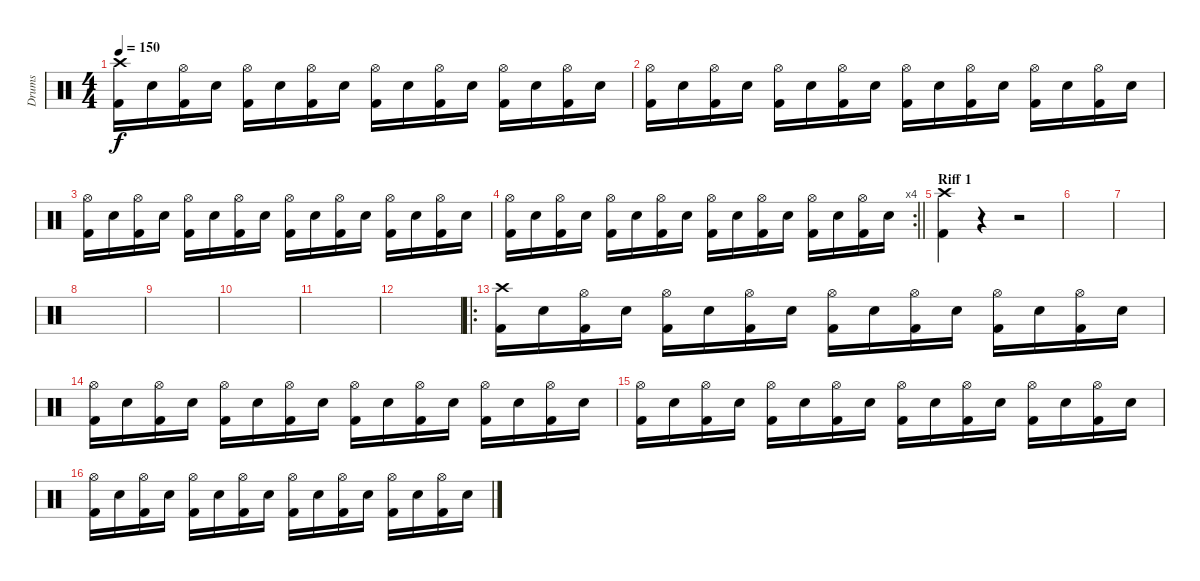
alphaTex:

\track ("Drums" "Drums") {instrument percussion}
\staff {score}
\articulation defaults
\ts (4 4)
\tempo 150
\clef neutral
\ks c
("Crash high (hit)" "Kick (hit) 2").16{dy f} "Electric Snare (hit)".16 ("Hi-Hat (open)" "Kick (hit) 2").16 "Electric Snare (hit)".16 ("Hi-Hat (open)" "Kick (hit) 2").16 "Electric Snare (hit)".16 ("Hi-Hat (open)" "Kick (hit) 2").16 "Electric Snare (hit)".16 ("Hi-Hat (open)" "Kick (hit) 2").16 "Electric Snare (hit)".16 ("Hi-Hat (open)" "Kick (hit) 2").16 "Electric Snare (hit)".16 ("Hi-Hat (open)" "Kick (hit) 2").16 "Electric Snare (hit)".16 ("Hi-Hat (open)" "Kick (hit) 2").16 "Electric Snare (hit)".16 |
("Hi-Hat (open)" "Kick (hit) 2").16 "Electric Snare (hit)".16 ("Hi-Hat (open)" "Kick (hit) 2").16 "Electric Snare (hit)".16 ("Hi-Hat (open)" "Kick (hit) 2").16 "Electric Snare (hit)".16 ("Hi-Hat (open)" "Kick (hit) 2").16 "Electric Snare (hit)".16 ("Hi-Hat (open)" "Kick (hit) 2").16 "Electric Snare (hit)".16 ("Hi-Hat (open)" "Kick (hit) 2").16 "Electric Snare (hit)".16 ("Hi-Hat (open)" "Kick (hit) 2").16 "Electric Snare (hit)".16 ("Hi-Hat (open)" "Kick (hit) 2").16 "Electric Snare (hit)".16 |
("Hi-Hat (open)" "Kick (hit) 2").16 "Electric Snare (hit)".16 ("Hi-Hat (open)" "Kick (hit) 2").16 "Electric Snare (hit)".16 ("Hi-Hat (open)" "Kick (hit) 2").16 "Electric Snare (hit)".16 ("Hi-Hat (open)" "Kick (hit) 2").16 "Electric Snare (hit)".16 ("Hi-Hat (open)" "Kick (hit) 2").16 "Electric Snare (hit)".16 ("Hi-Hat (open)" "Kick (hit) 2").16 "Electric Snare (hit)".16 ("Hi-Hat (open)" "Kick (hit) 2").16 "Electric Snare (hit)".16 ("Hi-Hat (open)" "Kick (hit) 2").16 "Electric Snare (hit)".16 |
\rc 4
\barLineRight lightlight
("Hi-Hat (open)" "Kick (hit) 2").16 "Electric Snare (hit)".16 ("Hi-Hat (open)" "Kick (hit) 2").16 "Electric Snare (hit)".16 ("Hi-Hat (open)" "Kick (hit) 2").16 "Electric Snare (hit)".16 ("Hi-Hat (open)" "Kick (hit) 2").16 "Electric Snare (hit)".16 ("Hi-Hat (open)" "Kick (hit) 2").16 "Electric Snare (hit)".16 ("Hi-Hat (open)" "Kick (hit) 2").16 "Electric Snare (hit)".16 ("Hi-Hat (open)" "Kick (hit) 2").16 "Electric Snare (hit)".16 ("Hi-Hat (open)" "Kick (hit) 2").16 "Electric Snare (hit)".16 |
\section ("" "Riff 1")
("Crash high (hit)" "Kick (hit) 2").4 r.4 r.2 |
|
|
|
|
|
|
|
\ro
("Crash high (hit)" "Kick (hit) 2").16 "Electric Snare (hit)".16 ("Hi-Hat (open)" "Kick (hit) 2").16 "Electric Snare (hit)".16 ("Hi-Hat (open)" "Kick (hit) 2").16 "Electric Snare (hit)".16 ("Hi-Hat (open)" "Kick (hit) 2").16 "Electric Snare (hit)".16 ("Hi-Hat (open)" "Kick (hit) 2").16 "Electric Snare (hit)".16 ("Hi-Hat (open)" "Kick (hit) 2").16 "Electric Snare (hit)".16 ("Hi-Hat (open)" "Kick (hit) 2").16 "Electric Snare (hit)".16 ("Hi-Hat (open)" "Kick (hit) 2").16 "Electric Snare (hit)".16 |
("Hi-Hat (open)" "Kick (hit) 2").16 "Electric Snare (hit)".16 ("Hi-Hat (open)" "Kick (hit) 2").16 "Electric Snare (hit)".16 ("Hi-Hat (open)" "Kick (hit) 2").16 "Electric Snare (hit)".16 ("Hi-Hat (open)" "Kick (hit) 2").16 "Electric Snare (hit)".16 ("Hi-Hat (open)" "Kick (hit) 2").16 "Electric Snare (hit)".16 ("Hi-Hat (open)" "Kick (hit) 2").16 "Electric Snare (hit)".16 ("Hi-Hat (open)" "Kick (hit) 2").16 "Electric Snare (hit)".16 ("Hi-Hat (open)" "Kick (hit) 2").16 "Electric Snare (hit)".16 |
("Hi-Hat (open)" "Kick (hit) 2").16 "Electric Snare (hit)".16 ("Hi-Hat (open)" "Kick (hit) 2").16 "Electric Snare (hit)".16 ("Hi-Hat (open)" "Kick (hit) 2").16 "Electric Snare (hit)".16 ("Hi-Hat (open)" "Kick (hit) 2").16 "Electric Snare (hit)".16 ("Hi-Hat (open)" "Kick (hit) 2").16 "Electric Snare (hit)".16 ("Hi-Hat (open)" "Kick (hit) 2").16 "Electric Snare (hit)".16 ("Hi-Hat (open)" "Kick (hit) 2").16 "Electric Snare (hit)".16 ("Hi-Hat (open)" "Kick (hit) 2").16 "Electric Snare (hit)".16 |
("Hi-Hat (open)" "Kick (hit) 2").16 "Electric Snare (hit)".16 ("Hi-Hat (open)" "Kick (hit) 2").16 "Electric Snare (hit)".16 ("Hi-Hat (open)" "Kick (hit) 2").16 "Electric Snare (hit)".16 ("Hi-Hat (open)" "Kick (hit) 2").16 "Electric Snare (hit)".16 ("Hi-Hat (open)" "Kick (hit) 2").16 "Electric Snare (hit)".16 ("Hi-Hat (open)" "Kick (hit) 2").16 "Electric Snare (hit)".16 ("Hi-Hat (open)" "Kick (hit) 2").16 "Electric Snare (hit)".16 ("Hi-Hat (open)" "Kick (hit) 2").16 "Electric Snare (hit)".16
